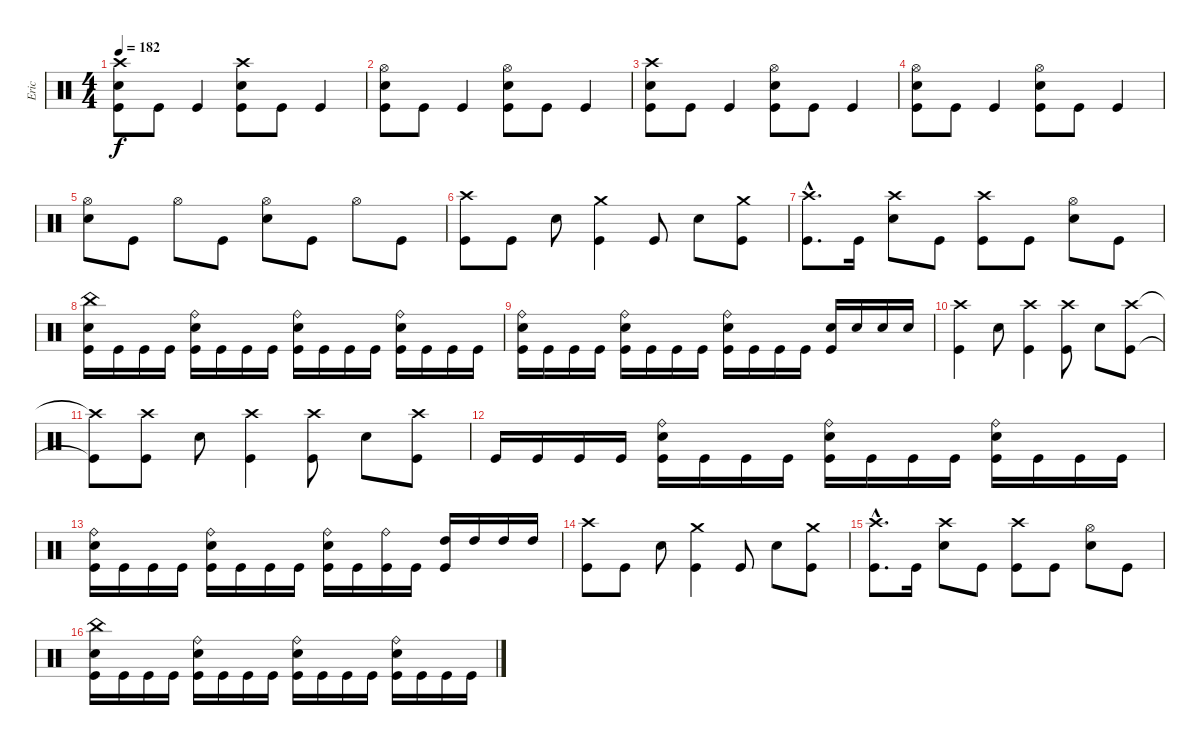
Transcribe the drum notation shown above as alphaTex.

\track ("Eric" "Eric") {instrument percussion}
\staff {score}
\articulation defaults
\ts (4 4)
\tempo 182
\clef neutral
\ks c
("Crash high (hit)" "Snare (hit) 2" "Kick (hit)").8{dy f} "Kick (hit)".8 "Kick (hit)".4 ("Crash high (hit)" "Snare (hit) 2" "Kick (hit)").8 "Kick (hit)".8 "Kick (hit)".4 |
("Hi-Hat (open)" "Snare (hit) 2" "Kick (hit)").8 "Kick (hit)".8 "Kick (hit)".4 ("Hi-Hat (open)" "Snare (hit) 2" "Kick (hit)").8 "Kick (hit)".8 "Kick (hit)".4 |
("Crash high (hit)" "Snare (hit) 2" "Kick (hit)").8 "Kick (hit)".8 "Kick (hit)".4 ("Hi-Hat (open)" "Snare (hit) 2" "Kick (hit)").8 "Kick (hit)".8 "Kick (hit)".4 |
("Hi-Hat (open)" "Snare (hit) 2" "Kick (hit)").8 "Kick (hit)".8 "Kick (hit)".4 ("Hi-Hat (open)" "Snare (hit) 2" "Kick (hit)").8 "Kick (hit)".8 "Kick (hit)".4 |
("Hi-Hat (open)" "Snare (hit) 2").8 "Kick (hit)".8 "Hi-Hat (open)".8 "Kick (hit)".8 ("Hi-Hat (open)" "Snare (hit) 2").8 "Kick (hit)".8 "Hi-Hat (open)".8 "Kick (hit)".8 |
("Crash high (hit)" "Kick (hit)").8 "Kick (hit)".8 "Snare (hit) 2".8 ("Crash medium (hit)" "Kick (hit)").4 "Kick (hit)".8 "Snare (hit) 2".8 ("Crash medium (hit)" "Kick (hit)").8 |
("Crash high (hit)"{hac} "Kick (hit)"{hac}).8{d} "Kick (hit)".16 ("Crash high (hit)" "Snare (hit) 2").8 "Kick (hit)".8 ("Crash high (hit)" "Kick (hit)").8 "Kick (hit)".8 ("Hi-Hat (open)" "Snare (hit) 2").8 "Kick (hit)".8 |
("China (hit)" "Snare (hit) 2" "Kick (hit)").16 "Kick (hit)".16 "Kick (hit)".16 "Kick (hit)".16 ("Ride (bell)" "Snare (hit) 2" "Kick (hit)").16 "Kick (hit)".16 "Kick (hit)".16 "Kick (hit)".16 ("Ride (bell)" "Snare (hit) 2" "Kick (hit)").16 "Kick (hit)".16 "Kick (hit)".16 "Kick (hit)".16 ("Ride (bell)" "Snare (hit) 2" "Kick (hit)").16 "Kick (hit)".16 "Kick (hit)".16 "Kick (hit)".16 |
("Ride (bell)" "Snare (hit) 2" "Kick (hit)").16 "Kick (hit)".16 "Kick (hit)".16 "Kick (hit)".16 ("Ride (bell)" "Snare (hit) 2" "Kick (hit)").16 "Kick (hit)".16 "Kick (hit)".16 "Kick (hit)".16 ("Ride (bell)" "Snare (hit) 2" "Kick (hit)").16 "Kick (hit)".16 "Kick (hit)".16 "Kick (hit)".16 ("Snare (hit) 2" "Kick (hit)").16 "Snare (hit) 2".16 "Snare (hit) 2".16 "Snare (hit) 2".16 |
("Crash high (hit)" "Kick (hit)").4 "Snare (hit) 2".8 ("Crash high (hit)" "Kick (hit)").4 ("Crash high (hit)" "Kick (hit)").8 "Snare (hit) 2".8 ("Crash high (hit)" "Kick (hit)").8 |
("Crash high (hit)"{t} "Kick (hit)"{t}).8 ("Crash high (hit)" "Kick (hit)").8 "Snare (hit) 2".8 ("Crash high (hit)" "Kick (hit)").4 ("Crash high (hit)" "Kick (hit)").8 "Snare (hit) 2".8 ("Crash high (hit)" "Kick (hit)").8 |
"Kick (hit)".16 "Kick (hit)".16 "Kick (hit)".16 "Kick (hit)".16 ("Ride (bell)" "Snare (hit) 2" "Kick (hit)").16 "Kick (hit)".16 "Kick (hit)".16 "Kick (hit)".16 ("Ride (bell)" "Snare (hit) 2" "Kick (hit)").16 "Kick (hit)".16 "Kick (hit)".16 "Kick (hit)".16 ("Ride (bell)" "Snare (hit) 2" "Kick (hit)").16 "Kick (hit)".16 "Kick (hit)".16 "Kick (hit)".16 |
("Ride (bell)" "Snare (hit) 2" "Kick (hit)").16 "Kick (hit)".16 "Kick (hit)".16 "Kick (hit)".16 ("Ride (bell)" "Snare (hit) 2" "Kick (hit)").16 "Kick (hit)".16 "Kick (hit)".16 "Kick (hit)".16 ("Ride (bell)" "Snare (hit) 2" "Kick (hit)").16 "Kick (hit)".16 ("Ride (bell)" "Kick (hit)").16 "Kick (hit)".16 ("High Tom (hit)" "Kick (hit)").16 "High Tom (hit)".16 "High Tom (hit)".16 "High Tom (hit)".16 |
("Crash high (hit)" "Kick (hit)").8 "Kick (hit)".8 "Snare (hit) 2".8 ("Crash medium (hit)" "Kick (hit)").4 "Kick (hit)".8 "Snare (hit) 2".8 ("Crash medium (hit)" "Kick (hit)").8 |
("Crash high (hit)"{hac} "Kick (hit)"{hac}).8{d} "Kick (hit)".16 ("Crash high (hit)" "Snare (hit) 2").8 "Kick (hit)".8 ("Crash high (hit)" "Kick (hit)").8 "Kick (hit)".8 ("Hi-Hat (open)" "Snare (hit) 2").8 "Kick (hit)".8 |
("China (hit)" "Snare (hit) 2" "Kick (hit)").16 "Kick (hit)".16 "Kick (hit)".16 "Kick (hit)".16 ("Ride (bell)" "Snare (hit) 2" "Kick (hit)").16 "Kick (hit)".16 "Kick (hit)".16 "Kick (hit)".16 ("Ride (bell)" "Snare (hit) 2" "Kick (hit)").16 "Kick (hit)".16 "Kick (hit)".16 "Kick (hit)".16 ("Ride (bell)" "Snare (hit) 2" "Kick (hit)").16 "Kick (hit)".16 "Kick (hit)".16 "Kick (hit)".16
